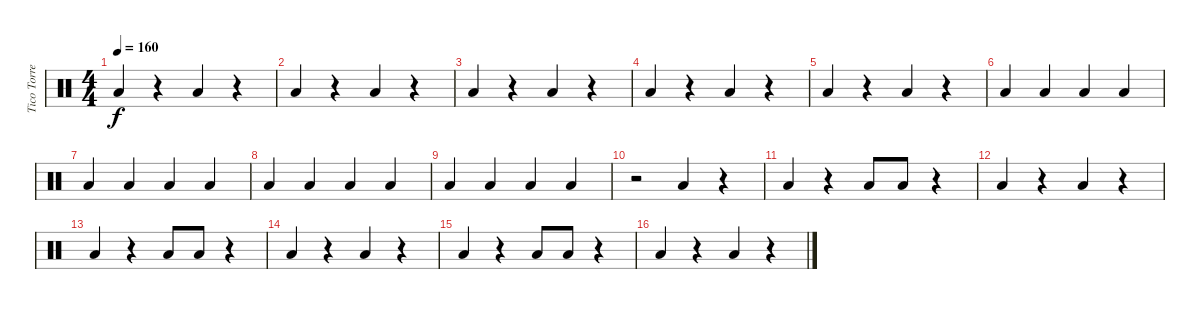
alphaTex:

\track ("Tico Torres" "Tico Torre") {instrument percussion}
\staff {score}
\articulation defaults
\ts (4 4)
\tempo 160
\clef neutral
\ks c "Low Floor Tom (hit)".4{dy f}
r.4 "Low Floor Tom (hit)".4 r.4 |
"Low Floor Tom (hit)".4 r.4 "Low Floor Tom (hit)".4 r.4 |
"Low Floor Tom (hit)".4 r.4 "Low Floor Tom (hit)".4 r.4 |
"Low Floor Tom (hit)".4 r.4 "Low Floor Tom (hit)".4 r.4 |
"Low Floor Tom (hit)".4 r.4 "Low Floor Tom (hit)".4 r.4 |
"Low Floor Tom (hit)".4 "Low Floor Tom (hit)".4 "Low Floor Tom (hit)".4 "Low Floor Tom (hit)".4 |
"Low Floor Tom (hit)".4 "Low Floor Tom (hit)".4 "Low Floor Tom (hit)".4 "Low Floor Tom (hit)".4 |
"Low Floor Tom (hit)".4 "Low Floor Tom (hit)".4 "Low Floor Tom (hit)".4 "Low Floor Tom (hit)".4 |
"Low Floor Tom (hit)".4 "Low Floor Tom (hit)".4 "Low Floor Tom (hit)".4 "Low Floor Tom (hit)".4 |
r.2 "Low Floor Tom (hit)".4 r.4 |
"Low Floor Tom (hit)".4 r.4 "Low Floor Tom (hit)".8 "Low Floor Tom (hit)".8 r.4 |
"Low Floor Tom (hit)".4 r.4 "Low Floor Tom (hit)".4 r.4 |
"Low Floor Tom (hit)".4 r.4 "Low Floor Tom (hit)".8 "Low Floor Tom (hit)".8 r.4 |
"Low Floor Tom (hit)".4 r.4 "Low Floor Tom (hit)".4 r.4 |
"Low Floor Tom (hit)".4 r.4 "Low Floor Tom (hit)".8 "Low Floor Tom (hit)".8 r.4 |
"Low Floor Tom (hit)".4 r.4 "Low Floor Tom (hit)".4 r.4
